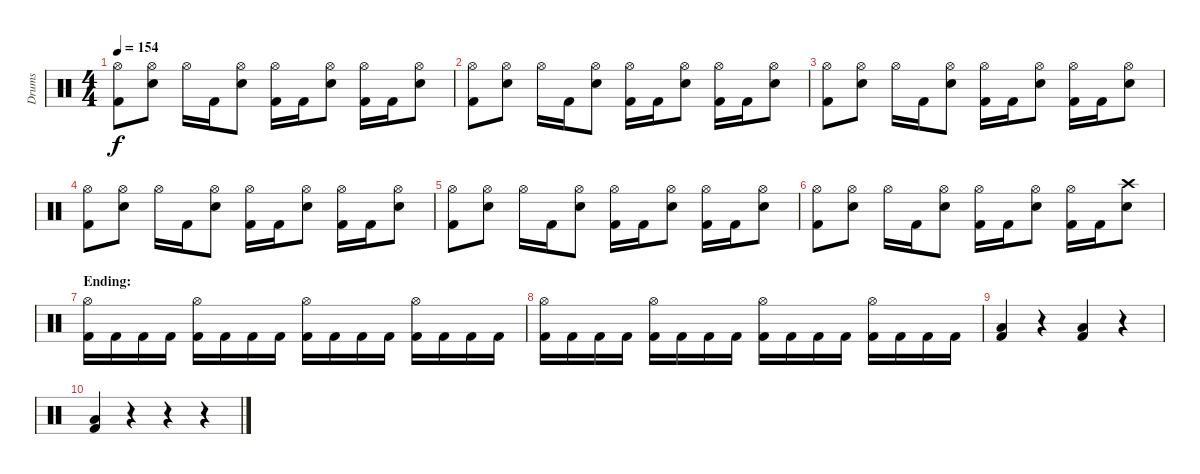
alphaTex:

\track ("Drums" "Drums") {instrument percussion}
\staff {score}
\articulation defaults
\ts (4 4)
\tempo 154
\clef neutral
\ks c
("Hi-Hat (open)" "Kick (hit) 2").8{dy f} ("Hi-Hat (open)" "Snare (hit) 2").8 "Hi-Hat (open)".16 "Kick (hit) 2".16 ("Hi-Hat (open)" "Snare (hit) 2").8 ("Hi-Hat (open)" "Kick (hit) 2").16 "Kick (hit) 2".16 ("Hi-Hat (open)" "Snare (hit) 2").8 ("Hi-Hat (open)" "Kick (hit) 2").16 "Kick (hit) 2".16 ("Hi-Hat (open)" "Snare (hit) 2").8 |
("Hi-Hat (open)" "Kick (hit) 2").8 ("Hi-Hat (open)" "Snare (hit) 2").8 "Hi-Hat (open)".16 "Kick (hit) 2".16 ("Hi-Hat (open)" "Snare (hit) 2").8 ("Hi-Hat (open)" "Kick (hit) 2").16 "Kick (hit) 2".16 ("Hi-Hat (open)" "Snare (hit) 2").8 ("Hi-Hat (open)" "Kick (hit) 2").16 "Kick (hit) 2".16 ("Hi-Hat (open)" "Snare (hit) 2").8 |
("Hi-Hat (open)" "Kick (hit) 2").8 ("Hi-Hat (open)" "Snare (hit) 2").8 "Hi-Hat (open)".16 "Kick (hit) 2".16 ("Hi-Hat (open)" "Snare (hit) 2").8 ("Hi-Hat (open)" "Kick (hit) 2").16 "Kick (hit) 2".16 ("Hi-Hat (open)" "Snare (hit) 2").8 ("Hi-Hat (open)" "Kick (hit) 2").16 "Kick (hit) 2".16 ("Hi-Hat (open)" "Snare (hit) 2").8 |
("Hi-Hat (open)" "Kick (hit) 2").8 ("Hi-Hat (open)" "Snare (hit) 2").8 "Hi-Hat (open)".16 "Kick (hit) 2".16 ("Hi-Hat (open)" "Snare (hit) 2").8 ("Hi-Hat (open)" "Kick (hit) 2").16 "Kick (hit) 2".16 ("Hi-Hat (open)" "Snare (hit) 2").8 ("Hi-Hat (open)" "Kick (hit) 2").16 "Kick (hit) 2".16 ("Hi-Hat (open)" "Snare (hit) 2").8 |
("Hi-Hat (open)" "Kick (hit) 2").8 ("Hi-Hat (open)" "Snare (hit) 2").8 "Hi-Hat (open)".16 "Kick (hit) 2".16 ("Hi-Hat (open)" "Snare (hit) 2").8 ("Hi-Hat (open)" "Kick (hit) 2").16 "Kick (hit) 2".16 ("Hi-Hat (open)" "Snare (hit) 2").8 ("Hi-Hat (open)" "Kick (hit) 2").16 "Kick (hit) 2".16 ("Hi-Hat (open)" "Snare (hit) 2").8 |
("Hi-Hat (open)" "Kick (hit) 2").8 ("Hi-Hat (open)" "Snare (hit) 2").8 "Hi-Hat (open)".16 "Kick (hit) 2".16 ("Hi-Hat (open)" "Snare (hit) 2").8 ("Hi-Hat (open)" "Kick (hit) 2").16 "Kick (hit) 2".16 ("Hi-Hat (open)" "Snare (hit) 2").8 ("Hi-Hat (open)" "Kick (hit) 2").16 "Kick (hit) 2".16 ("Crash high (hit)" "Snare (hit) 2").8 |
\section ("" "Ending:")
("Hi-Hat (open)" "Kick (hit) 2").16 "Kick (hit) 2".16 "Kick (hit) 2".16 "Kick (hit) 2".16 ("Hi-Hat (open)" "Kick (hit) 2").16 "Kick (hit) 2".16 "Kick (hit) 2".16 "Kick (hit) 2".16 ("Hi-Hat (open)" "Kick (hit) 2").16 "Kick (hit) 2".16 "Kick (hit) 2".16 "Kick (hit) 2".16 ("Hi-Hat (open)" "Kick (hit) 2").16 "Kick (hit) 2".16 "Kick (hit) 2".16 "Kick (hit) 2".16 |
("Hi-Hat (open)" "Kick (hit) 2").16 "Kick (hit) 2".16 "Kick (hit) 2".16 "Kick (hit) 2".16 ("Hi-Hat (open)" "Kick (hit) 2").16 "Kick (hit) 2".16 "Kick (hit) 2".16 "Kick (hit) 2".16 ("Hi-Hat (open)" "Kick (hit) 2").16 "Kick (hit) 2".16 "Kick (hit) 2".16 "Kick (hit) 2".16 ("Hi-Hat (open)" "Kick (hit) 2").16 "Kick (hit) 2".16 "Kick (hit) 2".16 "Kick (hit) 2".16 |
("Low Tom (hit)" "Kick (hit) 2").4 r.4 ("Low Tom (hit)" "Kick (hit) 2").4 r.4 |
("Low Tom (hit)" "Kick (hit) 2").4 r.4 r.4 r.4
